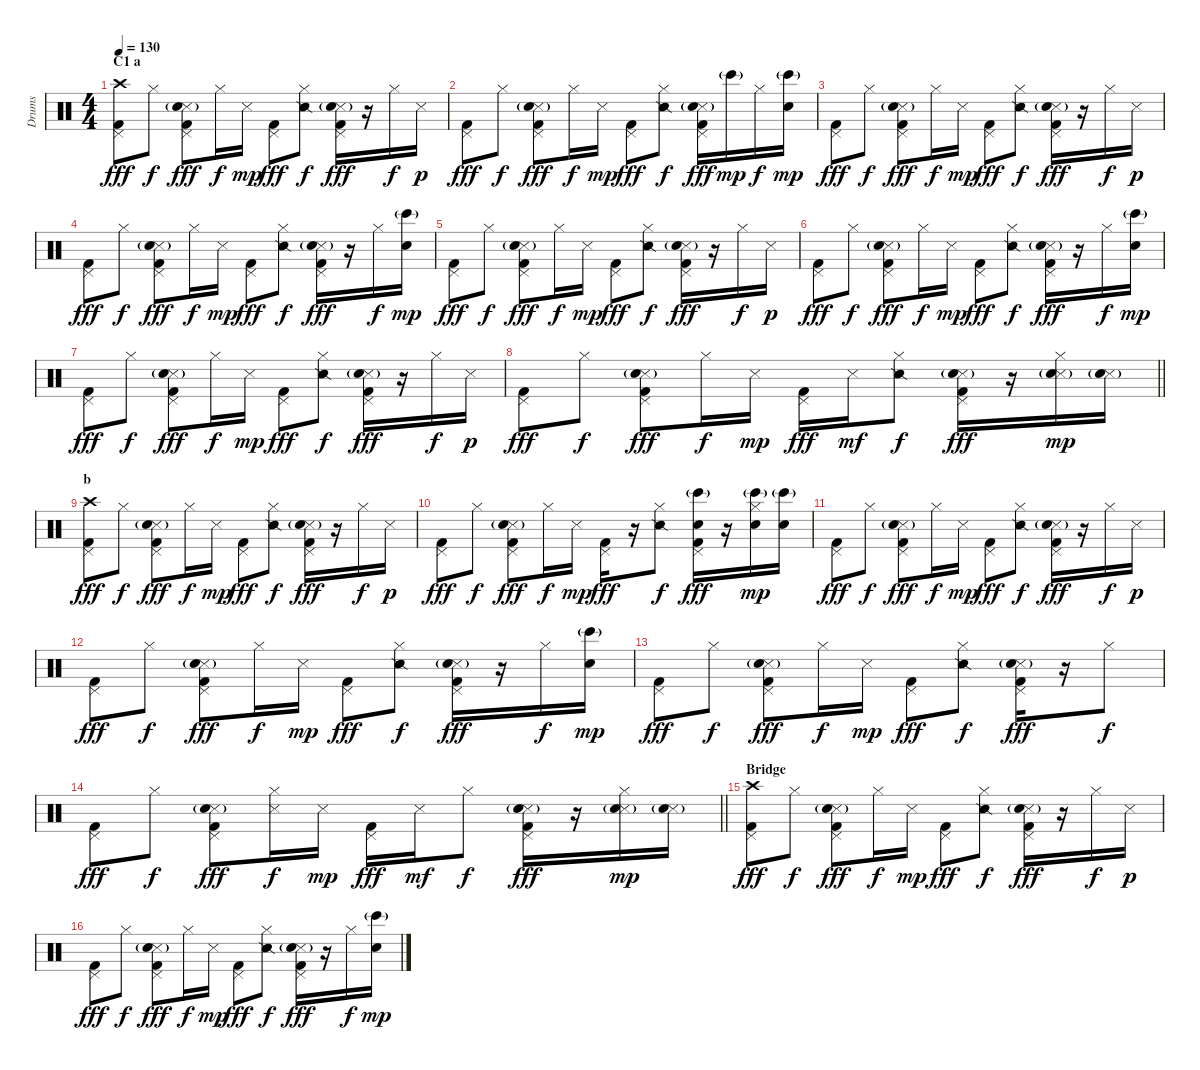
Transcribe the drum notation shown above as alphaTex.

\track ("Drums" "Drums") {instrument percussion}
\staff {score}
\articulation defaults
\ts (4 4)
\section ("" "C1 a")
\tempo 130
\clef neutral
\ks c
("Crash high (hit)" "Pedal Hi-Hat (hit)" "Kick (hit) 2").8{dy fff} "Hi-Hat (closed)".8{dy f} ("Pedal Hi-Hat (hit)" "Snare (side stick) 3"{g} "Electric Snare (hit)" "Kick (hit) 2").8{dy fff} "Hi-Hat (closed)".16{dy f} "Snare (side stick) 3".16{dy mp} ("Pedal Hi-Hat (hit)" "Kick (hit) 2").8{dy fff} ("Hi-Hat (closed)" "Snare (side stick) 2").8{dy f} ("Pedal Hi-Hat (hit)" "Snare (side stick) 3"{g} "Electric Snare (hit)" "Kick (hit) 2").16{dy fff} r.16 "Hi-Hat (closed)".16{dy f} "Snare (side stick) 3".16{dy p} |
("Pedal Hi-Hat (hit)" "Kick (hit) 2").8{dy fff} "Hi-Hat (closed)".8{dy f} ("Pedal Hi-Hat (hit)" "Snare (side stick) 3"{g} "Electric Snare (hit)" "Kick (hit) 2").8{dy fff} "Hi-Hat (closed)".16{dy f} "Snare (side stick) 3".16{dy mp} ("Pedal Hi-Hat (hit)" "Kick (hit) 2").8{dy fff} ("Hi-Hat (closed)" "Snare (side stick) 2").8{dy f} ("Pedal Hi-Hat (hit)" "Snare (side stick) 3"{g} "Electric Snare (hit)" "Kick (hit) 2").16{dy fff} "Bongo High (hit)"{g}.16{dy mp} "Hi-Hat (closed)".16{dy f} ("Bongo High (hit)"{g} "Electric Snare (hit)").16{dy mp} |
("Pedal Hi-Hat (hit)" "Kick (hit) 2").8{dy fff} "Hi-Hat (closed)".8{dy f} ("Pedal Hi-Hat (hit)" "Snare (side stick) 3"{g} "Electric Snare (hit)" "Kick (hit) 2").8{dy fff} "Hi-Hat (closed)".16{dy f} "Snare (side stick) 3".16{dy mp} ("Pedal Hi-Hat (hit)" "Kick (hit) 2").8{dy fff} ("Hi-Hat (closed)" "Snare (side stick) 2").8{dy f} ("Pedal Hi-Hat (hit)" "Snare (side stick) 3"{g} "Electric Snare (hit)" "Kick (hit) 2").16{dy fff} r.16 "Hi-Hat (closed)".16{dy f} "Snare (side stick) 3".16{dy p} |
("Pedal Hi-Hat (hit)" "Kick (hit) 2").8{dy fff} "Hi-Hat (closed)".8{dy f} ("Pedal Hi-Hat (hit)" "Snare (side stick) 3"{g} "Electric Snare (hit)" "Kick (hit) 2").8{dy fff} "Hi-Hat (closed)".16{dy f} "Snare (side stick) 3".16{dy mp} ("Pedal Hi-Hat (hit)" "Kick (hit) 2").8{dy fff} ("Hi-Hat (closed)" "Snare (side stick) 2").8{dy f} ("Pedal Hi-Hat (hit)" "Snare (side stick) 3"{g} "Electric Snare (hit)" "Kick (hit) 2").16{dy fff} r.16 "Hi-Hat (closed)".16{dy f} ("Bongo High (hit)"{g} "Electric Snare (hit)").16{dy mp} |
("Pedal Hi-Hat (hit)" "Kick (hit) 2").8{dy fff} "Hi-Hat (closed)".8{dy f} ("Pedal Hi-Hat (hit)" "Snare (side stick) 3"{g} "Electric Snare (hit)" "Kick (hit) 2").8{dy fff} "Hi-Hat (closed)".16{dy f} "Snare (side stick) 3".16{dy mp} ("Pedal Hi-Hat (hit)" "Kick (hit) 2").8{dy fff} ("Hi-Hat (closed)" "Snare (side stick) 2").8{dy f} ("Pedal Hi-Hat (hit)" "Snare (side stick) 3"{g} "Electric Snare (hit)" "Kick (hit) 2").16{dy fff} r.16 "Hi-Hat (closed)".16{dy f} "Snare (side stick) 3".16{dy p} |
("Pedal Hi-Hat (hit)" "Kick (hit) 2").8{dy fff} "Hi-Hat (closed)".8{dy f} ("Pedal Hi-Hat (hit)" "Snare (side stick) 3"{g} "Electric Snare (hit)" "Kick (hit) 2").8{dy fff} "Hi-Hat (closed)".16{dy f} "Snare (side stick) 3".16{dy mp} ("Pedal Hi-Hat (hit)" "Kick (hit) 2").8{dy fff} ("Hi-Hat (closed)" "Snare (side stick) 2").8{dy f} ("Pedal Hi-Hat (hit)" "Snare (side stick) 3"{g} "Electric Snare (hit)" "Kick (hit) 2").16{dy fff} r.16 "Hi-Hat (closed)".16{dy f} ("Bongo High (hit)"{g} "Electric Snare (hit)").16{dy mp} |
("Pedal Hi-Hat (hit)" "Kick (hit) 2").8{dy fff} "Hi-Hat (closed)".8{dy f} ("Pedal Hi-Hat (hit)" "Snare (side stick) 3"{g} "Electric Snare (hit)" "Kick (hit) 2").8{dy fff} "Hi-Hat (closed)".16{dy f} "Snare (side stick) 3".16{dy mp} ("Pedal Hi-Hat (hit)" "Kick (hit) 2").8{dy fff} ("Hi-Hat (closed)" "Snare (side stick) 2").8{dy f} ("Pedal Hi-Hat (hit)" "Snare (side stick) 3"{g} "Electric Snare (hit)" "Kick (hit) 2").16{dy fff} r.16 "Hi-Hat (closed)".16{dy f} "Snare (side stick) 3".16{dy p} |
\barLineRight lightlight
("Pedal Hi-Hat (hit)" "Kick (hit) 2").8{dy fff} "Hi-Hat (closed)".8{dy f} ("Pedal Hi-Hat (hit)" "Snare (side stick) 3"{g} "Electric Snare (hit)" "Kick (hit) 2").8{dy fff} "Hi-Hat (closed)".16{dy f} "Snare (side stick) 3".16{dy mp} ("Pedal Hi-Hat (hit)" "Kick (hit) 2").16{dy fff} "Snare (side stick) 3".16{dy mf} ("Hi-Hat (closed)" "Snare (side stick) 2").8{dy f} ("Pedal Hi-Hat (hit)" "Snare (side stick) 3"{g} "Electric Snare (hit)" "Kick (hit) 2").16{dy fff} r.16 ("Hi-Hat (closed)" "Snare (side stick) 3"{g} "Electric Snare (hit)").16{dy mp} ("Snare (side stick) 3"{g} "Electric Snare (hit)").16 |
\section ("" "b")
("Crash high (hit)" "Pedal Hi-Hat (hit)" "Kick (hit) 2").8{dy fff} "Hi-Hat (closed)".8{dy f} ("Pedal Hi-Hat (hit)" "Snare (side stick) 3"{g} "Electric Snare (hit)" "Kick (hit) 2").8{dy fff} "Hi-Hat (closed)".16{dy f} "Snare (side stick) 3".16{dy mp} ("Pedal Hi-Hat (hit)" "Kick (hit) 2").8{dy fff} ("Hi-Hat (closed)" "Snare (side stick) 2").8{dy f} ("Pedal Hi-Hat (hit)" "Snare (side stick) 3"{g} "Electric Snare (hit)" "Kick (hit) 2").16{dy fff} r.16 "Hi-Hat (closed)".16{dy f} "Snare (side stick) 3".16{dy p} |
("Pedal Hi-Hat (hit)" "Kick (hit) 2").8{dy fff} "Hi-Hat (closed)".8{dy f} ("Pedal Hi-Hat (hit)" "Snare (side stick) 3"{g} "Electric Snare (hit)" "Kick (hit) 2").8{dy fff} "Hi-Hat (closed)".16{dy f} "Snare (side stick) 3".16{dy mp} ("Pedal Hi-Hat (hit)" "Kick (hit) 2").16{dy fff} r.16 ("Hi-Hat (closed)" "Snare (side stick) 2").8{dy f} ("Pedal Hi-Hat (hit)" "Bongo High (hit)"{g} "Electric Snare (hit)" "Kick (hit) 2").16{dy fff} r.16 ("Hi-Hat (closed)" "Bongo High (hit)"{g} "Electric Snare (hit)").16{dy mp} ("Bongo High (hit)"{g} "Electric Snare (hit)").16 |
("Pedal Hi-Hat (hit)" "Kick (hit) 2").8{dy fff} "Hi-Hat (closed)".8{dy f} ("Pedal Hi-Hat (hit)" "Snare (side stick) 3"{g} "Electric Snare (hit)" "Kick (hit) 2").8{dy fff} "Hi-Hat (closed)".16{dy f} "Snare (side stick) 3".16{dy mp} ("Pedal Hi-Hat (hit)" "Kick (hit) 2").8{dy fff} ("Hi-Hat (closed)" "Snare (side stick) 2").8{dy f} ("Pedal Hi-Hat (hit)" "Snare (side stick) 3"{g} "Electric Snare (hit)" "Kick (hit) 2").16{dy fff} r.16 "Hi-Hat (closed)".16{dy f} "Snare (side stick) 3".16{dy p} |
("Pedal Hi-Hat (hit)" "Kick (hit) 2").8{dy fff} "Hi-Hat (closed)".8{dy f} ("Pedal Hi-Hat (hit)" "Snare (side stick) 3"{g} "Electric Snare (hit)" "Kick (hit) 2").8{dy fff} "Hi-Hat (closed)".16{dy f} "Snare (side stick) 3".16{dy mp} ("Pedal Hi-Hat (hit)" "Kick (hit) 2").8{dy fff} ("Hi-Hat (closed)" "Snare (side stick) 2").8{dy f} ("Pedal Hi-Hat (hit)" "Snare (side stick) 3"{g} "Electric Snare (hit)" "Kick (hit) 2").16{dy fff} r.16 "Hi-Hat (closed)".16{dy f} ("Bongo High (hit)"{g} "Electric Snare (hit)").16{dy mp} |
("Pedal Hi-Hat (hit)" "Kick (hit) 2").8{dy fff} "Hi-Hat (closed)".8{dy f} ("Pedal Hi-Hat (hit)" "Snare (side stick) 3"{g} "Electric Snare (hit)" "Kick (hit) 2").8{dy fff} "Hi-Hat (closed)".16{dy f} "Snare (side stick) 3".16{dy mp} ("Pedal Hi-Hat (hit)" "Kick (hit) 2").8{dy fff} ("Hi-Hat (closed)" "Snare (side stick) 2").8{dy f} ("Pedal Hi-Hat (hit)" "Snare (side stick) 3"{g} "Electric Snare (hit)" "Kick (hit) 2").16{dy fff} r.16 "Hi-Hat (closed)".8{dy f} |
\barLineRight lightlight
("Pedal Hi-Hat (hit)" "Kick (hit) 2").8{dy fff} "Hi-Hat (closed)".8{dy f} ("Pedal Hi-Hat (hit)" "Snare (side stick) 3"{g} "Electric Snare (hit)" "Kick (hit) 2").8{dy fff} ("Hi-Hat (closed)" "Snare (side stick) 3").16{dy f} "Snare (side stick) 3".16{dy mp} ("Pedal Hi-Hat (hit)" "Kick (hit) 2").16{dy fff} "Snare (side stick) 3".16{dy mf} "Hi-Hat (closed)".8{dy f} ("Pedal Hi-Hat (hit)" "Snare (side stick) 3"{g} "Electric Snare (hit)" "Kick (hit) 2").16{dy fff} r.16 ("Hi-Hat (closed)" "Snare (side stick) 3"{g} "Electric Snare (hit)").16{dy mp} ("Snare (side stick) 3"{g} "Electric Snare (hit)").16 |
\section ("" "Bridge")
("Crash high (hit)" "Pedal Hi-Hat (hit)" "Kick (hit) 2").8{dy fff} "Hi-Hat (closed)".8{dy f} ("Pedal Hi-Hat (hit)" "Snare (side stick) 3"{g} "Electric Snare (hit)" "Kick (hit) 2").8{dy fff} "Hi-Hat (closed)".16{dy f} "Snare (side stick) 3".16{dy mp} ("Pedal Hi-Hat (hit)" "Kick (hit) 2").8{dy fff} ("Hi-Hat (closed)" "Snare (side stick) 2").8{dy f} ("Pedal Hi-Hat (hit)" "Snare (side stick) 3"{g} "Electric Snare (hit)" "Kick (hit) 2").16{dy fff} r.16 "Hi-Hat (closed)".16{dy f} "Snare (side stick) 3".16{dy p} |
("Pedal Hi-Hat (hit)" "Kick (hit) 2").8{dy fff} "Hi-Hat (closed)".8{dy f} ("Pedal Hi-Hat (hit)" "Snare (side stick) 3"{g} "Electric Snare (hit)" "Kick (hit) 2").8{dy fff} "Hi-Hat (closed)".16{dy f} "Snare (side stick) 3".16{dy mp} ("Pedal Hi-Hat (hit)" "Kick (hit) 2").8{dy fff} ("Hi-Hat (closed)" "Snare (side stick) 2").8{dy f} ("Pedal Hi-Hat (hit)" "Snare (side stick) 3"{g} "Electric Snare (hit)" "Kick (hit) 2").16{dy fff} r.16 "Hi-Hat (closed)".16{dy f} ("Bongo High (hit)"{g} "Electric Snare (hit)").16{dy mp}
